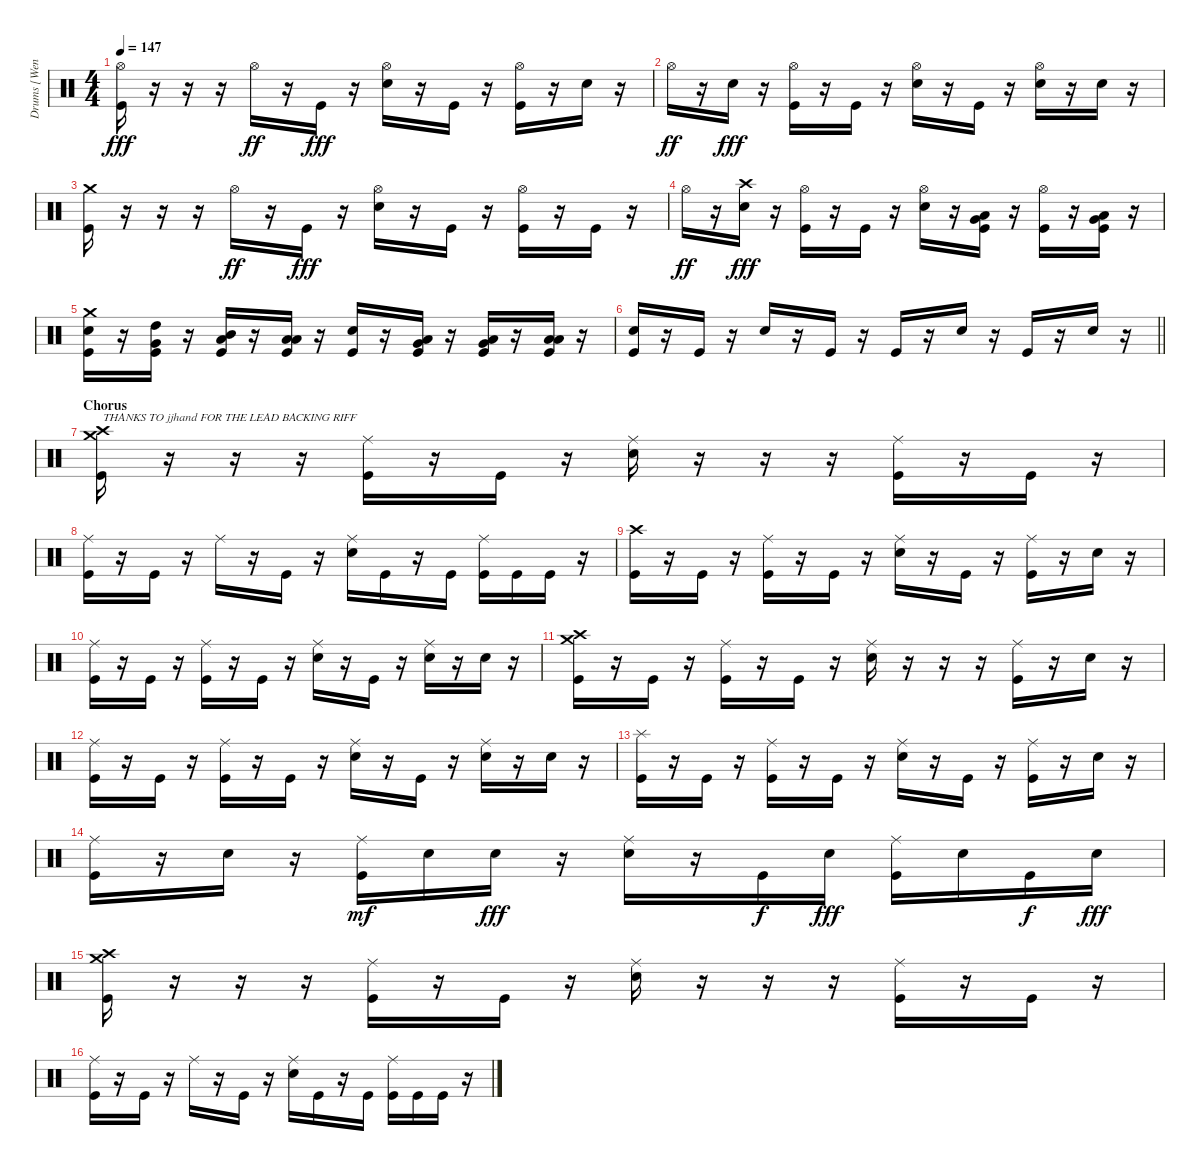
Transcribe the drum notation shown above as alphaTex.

\track ("Drums [Wengren]" "Drums [Wen") {instrument percussion}
\staff {score}
\articulation defaults
\ts (4 4)
\tempo 147
\clef neutral
\ks c
("Hi-Hat (open)" "Kick (hit)").16{dy fff} r.16 r.16 r.16 "Hi-Hat (open)".16{dy ff} r.16 "Kick (hit)".16{dy fff} r.16 ("Hi-Hat (open)" "Snare (hit) 2").16 r.16 "Kick (hit)".16 r.16 ("Hi-Hat (open)" "Kick (hit)").16 r.16 "Snare (hit) 2".16 r.16 |
"Hi-Hat (open)".16{dy ff} r.16 "Snare (hit) 2".16{dy fff} r.16 ("Hi-Hat (open)" "Kick (hit)").16 r.16 "Kick (hit)".16 r.16 ("Hi-Hat (open)" "Snare (hit) 2").16 r.16 "Kick (hit)".16 r.16 ("Hi-Hat (open)" "Snare (hit) 2").16 r.16 "Snare (hit) 2".16 r.16 |
("Crash medium (hit)" "Kick (hit)").16 r.16 r.16 r.16 "Hi-Hat (open)".16{dy ff} r.16 "Kick (hit)".16{dy fff} r.16 ("Hi-Hat (open)" "Snare (hit) 2").16 r.16 "Kick (hit)".16 r.16 ("Hi-Hat (open)" "Kick (hit)").16 r.16 "Kick (hit)".16 r.16 |
"Hi-Hat (open)".16{dy ff} r.16 ("Crash high (hit)" "Snare (hit) 2").16{dy fff} r.16 ("Hi-Hat (open)" "Kick (hit)").16 r.16 "Kick (hit)".16 r.16 ("Hi-Hat (open)" "Snare (hit) 2").16 r.16 ("Low Tom (hit)" "Very Low Tom (hit)" "Kick (hit)").16 r.16 ("Hi-Hat (open)" "Kick (hit)").16 r.16 ("Very Low Tom (hit)" "Low Floor Tom (hit)" "Kick (hit)").16 r.16 |
("Crash medium (hit)" "Snare (hit) 2" "Kick (hit)").16 r.16 ("High Tom (hit)" "Very Low Tom (hit)" "Kick (hit)").16 r.16 ("Mid Tom (hit)" "Low Tom (hit)" "Kick (hit)").16 r.16 ("Low Tom (hit)" "Low Floor Tom (hit)" "Kick (hit)").16 r.16 ("Snare (hit) 2" "Kick (hit)").16 r.16 ("Low Tom (hit)" "Very Low Tom (hit)" "Kick (hit)").16 r.16 ("Very Low Tom (hit)" "Low Floor Tom (hit)" "Kick (hit)").16 r.16 ("Low Tom (hit)" "Low Floor Tom (hit)" "Kick (hit)").16 r.16 |
\barLineRight lightlight
("Snare (hit) 2" "Kick (hit)").16 r.16 "Kick (hit)".16 r.16 "Snare (hit) 2".16 r.16 "Kick (hit)".16 r.16 "Kick (hit)".16 r.16 "Snare (hit) 2".16 r.16 "Kick (hit)".16 r.16 "Snare (hit) 2".16 r.16 |
\section ("" "Chorus")
("Crash high (hit)" "Crash medium (hit)" "Kick (hit)").16{txt "THANKS TO jjhand FOR THE LEAD BACKING RIFF"} r.16 r.16 r.16 ("Ride (middle)" "Kick (hit)").16 r.16 "Kick (hit)".16 r.16 ("Ride (middle)" "Snare (hit) 2").16 r.16 r.16 r.16 ("Ride (middle)" "Kick (hit)").16 r.16 "Kick (hit)".16 r.16 |
("Ride (middle)" "Kick (hit)").16 r.16 "Kick (hit)".16 r.16 "Ride (middle)".16 r.16 "Kick (hit)".16 r.16 ("Ride (middle)" "Snare (hit) 2").16 "Kick (hit)".16 r.16 "Kick (hit)".16 ("Ride (middle)" "Kick (hit)").16 "Kick (hit)".16 "Kick (hit)".16 r.16 |
("Crash high (hit)" "Kick (hit)").16 r.16 "Kick (hit)".16 r.16 ("Ride (middle)" "Kick (hit)").16 r.16 "Kick (hit)".16 r.16 ("Ride (middle)" "Snare (hit) 2").16 r.16 "Kick (hit)".16 r.16 ("Ride (middle)" "Kick (hit)").16 r.16 "Snare (hit) 2".16 r.16 |
("Ride (middle)" "Kick (hit)").16 r.16 "Kick (hit)".16 r.16 ("Ride (middle)" "Kick (hit)").16 r.16 "Kick (hit)".16 r.16 ("Ride (middle)" "Snare (hit) 2").16 r.16 "Kick (hit)".16 r.16 ("Ride (middle)" "Snare (hit) 2").16 r.16 "Snare (hit) 2".16 r.16 |
("Crash high (hit)" "Crash medium (hit)" "Kick (hit)").16 r.16 "Kick (hit)".16 r.16 ("Ride (middle)" "Kick (hit)").16 r.16 "Kick (hit)".16 r.16 ("Ride (middle)" "Snare (hit) 2").16 r.16 r.16 r.16 ("Ride (middle)" "Kick (hit)").16 r.16 "Snare (hit) 2".16 r.16 |
("Ride (middle)" "Kick (hit)").16 r.16 "Kick (hit)".16 r.16 ("Ride (middle)" "Kick (hit)").16 r.16 "Kick (hit)".16 r.16 ("Ride (middle)" "Snare (hit) 2").16 r.16 "Kick (hit)".16 r.16 ("Ride (middle)" "Snare (hit) 2").16 r.16 "Snare (hit) 2".16 r.16 |
("Splash (hit)" "Kick (hit)").16 r.16 "Kick (hit)".16 r.16 ("Ride (middle)" "Kick (hit)").16 r.16 "Kick (hit)".16 r.16 ("Ride (middle)" "Snare (hit) 2").16 r.16 "Kick (hit)".16 r.16 ("Ride (middle)" "Kick (hit)").16 r.16 "Snare (hit) 2".16 r.16 |
("Ride (middle)" "Kick (hit)").16 r.16 "Snare (hit) 2".16 r.16 ("Ride (middle)" "Kick (hit)").16{dy mf} "Snare (hit) 2".16 "Snare (hit) 2".16{dy fff} r.16 ("Ride (middle)" "Snare (hit) 2").16 r.16 "Kick (hit)".16{dy f} "Snare (hit) 2".16{dy fff} ("Ride (middle)" "Kick (hit)").16 "Snare (hit) 2".16 "Kick (hit)".16{dy f} "Snare (hit) 2".16{dy fff} |
("Crash high (hit)" "Crash medium (hit)" "Kick (hit)").16 r.16 r.16 r.16 ("Ride (middle)" "Kick (hit)").16 r.16 "Kick (hit)".16 r.16 ("Ride (middle)" "Snare (hit) 2").16 r.16 r.16 r.16 ("Ride (middle)" "Kick (hit)").16 r.16 "Kick (hit)".16 r.16 |
("Ride (middle)" "Kick (hit)").16 r.16 "Kick (hit)".16 r.16 "Ride (middle)".16 r.16 "Kick (hit)".16 r.16 ("Ride (middle)" "Snare (hit) 2").16 "Kick (hit)".16 r.16 "Kick (hit)".16 ("Ride (middle)" "Kick (hit)").16 "Kick (hit)".16 "Kick (hit)".16 r.16
